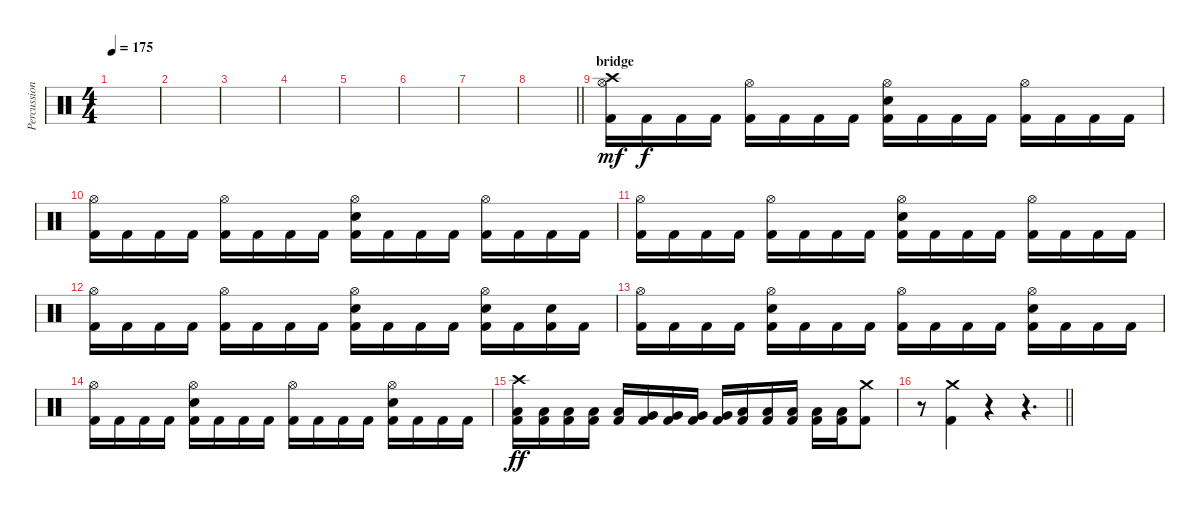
\track ("Percussion" "Percussion") {instrument percussion}
\staff {score}
\articulation defaults
\ts (4 4)
\tempo 175
\clef neutral
\ks c
|
|
|
|
|
|
|
\barLineRight lightlight
|
\section ("" "bridge")
("Crash high (hit)" "Hi-Hat (open)" "Kick (hit) 2").16{dy mf} "Kick (hit) 2".16{dy f} "Kick (hit) 2".16 "Kick (hit) 2".16 ("Hi-Hat (open)" "Kick (hit) 2").16 "Kick (hit) 2".16 "Kick (hit) 2".16 "Kick (hit) 2".16 ("Electric Snare (hit)" "Hi-Hat (open)" "Kick (hit) 2").16 "Kick (hit) 2".16 "Kick (hit) 2".16 "Kick (hit) 2".16 ("Hi-Hat (open)" "Kick (hit) 2").16 "Kick (hit) 2".16 "Kick (hit) 2".16 "Kick (hit) 2".16 |
("Hi-Hat (open)" "Kick (hit) 2").16 "Kick (hit) 2".16 "Kick (hit) 2".16 "Kick (hit) 2".16 ("Hi-Hat (open)" "Kick (hit) 2").16 "Kick (hit) 2".16 "Kick (hit) 2".16 "Kick (hit) 2".16 ("Electric Snare (hit)" "Hi-Hat (open)" "Kick (hit) 2").16 "Kick (hit) 2".16 "Kick (hit) 2".16 "Kick (hit) 2".16 ("Hi-Hat (open)" "Kick (hit) 2").16 "Kick (hit) 2".16 "Kick (hit) 2".16 "Kick (hit) 2".16 |
("Hi-Hat (open)" "Kick (hit) 2").16 "Kick (hit) 2".16 "Kick (hit) 2".16 "Kick (hit) 2".16 ("Hi-Hat (open)" "Kick (hit) 2").16 "Kick (hit) 2".16 "Kick (hit) 2".16 "Kick (hit) 2".16 ("Electric Snare (hit)" "Hi-Hat (open)" "Kick (hit) 2").16 "Kick (hit) 2".16 "Kick (hit) 2".16 "Kick (hit) 2".16 ("Hi-Hat (open)" "Kick (hit) 2").16 "Kick (hit) 2".16 "Kick (hit) 2".16 "Kick (hit) 2".16 |
("Hi-Hat (open)" "Kick (hit) 2").16 "Kick (hit) 2".16 "Kick (hit) 2".16 "Kick (hit) 2".16 ("Hi-Hat (open)" "Kick (hit) 2").16 "Kick (hit) 2".16 "Kick (hit) 2".16 "Kick (hit) 2".16 ("Electric Snare (hit)" "Hi-Hat (open)" "Kick (hit) 2").16 "Kick (hit) 2".16 "Kick (hit) 2".16 "Kick (hit) 2".16 ("Electric Snare (hit)" "Hi-Hat (open)" "Kick (hit) 2").16 "Kick (hit) 2".16 ("Electric Snare (hit)" "Kick (hit) 2").16 "Kick (hit) 2".16 |
("Hi-Hat (open)" "Kick (hit) 2").16 "Kick (hit) 2".16 "Kick (hit) 2".16 "Kick (hit) 2".16 ("Electric Snare (hit)" "Hi-Hat (open)" "Kick (hit) 2").16 "Kick (hit) 2".16 "Kick (hit) 2".16 "Kick (hit) 2".16 ("Hi-Hat (open)" "Kick (hit) 2").16 "Kick (hit) 2".16 "Kick (hit) 2".16 "Kick (hit) 2".16 ("Electric Snare (hit)" "Hi-Hat (open)" "Kick (hit) 2").16 "Kick (hit) 2".16 "Kick (hit) 2".16 "Kick (hit) 2".16 |
("Hi-Hat (open)" "Kick (hit) 2").16 "Kick (hit) 2".16 "Kick (hit) 2".16 "Kick (hit) 2".16 ("Electric Snare (hit)" "Hi-Hat (open)" "Kick (hit) 2").16 "Kick (hit) 2".16 "Kick (hit) 2".16 "Kick (hit) 2".16 ("Hi-Hat (open)" "Kick (hit) 2").16 "Kick (hit) 2".16 "Kick (hit) 2".16 "Kick (hit) 2".16 ("Electric Snare (hit)" "Hi-Hat (open)" "Kick (hit) 2").16 "Kick (hit) 2".16 "Kick (hit) 2".16 "Kick (hit) 2".16 |
("Crash high (hit)" "Low Tom (hit)" "Kick (hit) 2").16{dy ff} ("Low Tom (hit)" "Kick (hit) 2").16 ("Low Tom (hit)" "Kick (hit) 2").16 ("Low Tom (hit)" "Kick (hit) 2").16 ("Low Tom (hit)" "Kick (hit) 2").16 ("Very Low Tom (hit)" "Kick (hit) 2").16 ("Very Low Tom (hit)" "Kick (hit) 2").16 ("Very Low Tom (hit)" "Kick (hit) 2").16 ("Very Low Tom (hit)" "Kick (hit) 2").16 ("Low Floor Tom (hit)" "Kick (hit) 2").16 ("Low Floor Tom (hit)" "Kick (hit) 2").16 ("Low Floor Tom (hit)" "Kick (hit) 2").16 ("Low Floor Tom (hit)" "Kick (hit) 2").16 ("Low Floor Tom (hit)" "Kick (hit) 2").16 ("Crash medium (hit)" "Kick (hit) 2").8 |
\barLineRight lightlight
r.8 ("Crash medium (hit)" "Kick (hit) 2").4 r.4 r.4{d}
